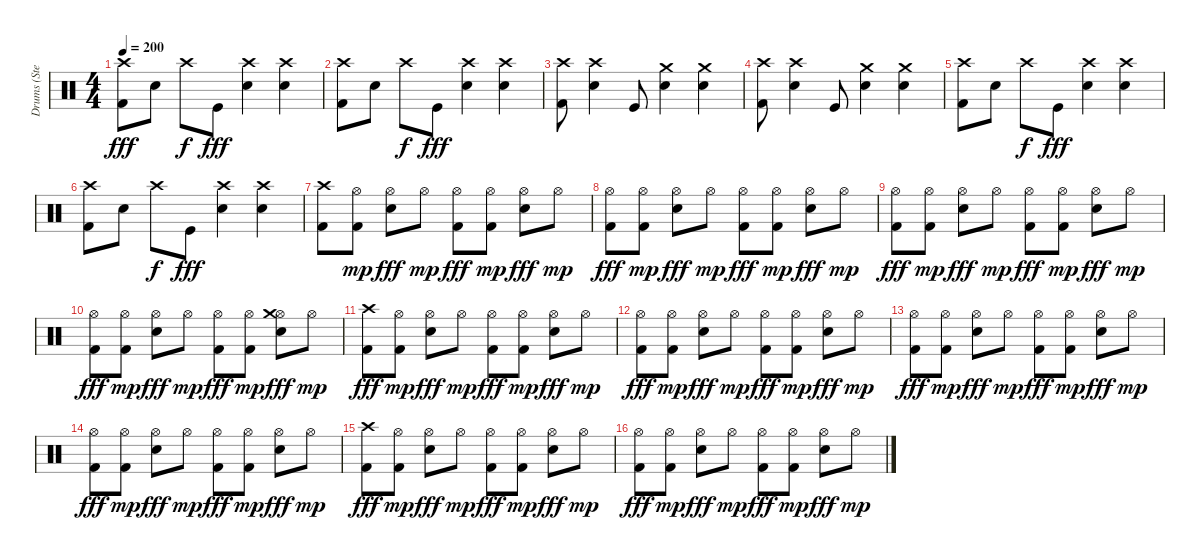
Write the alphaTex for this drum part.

\track ("Drums (Stevo32)" "Drums (Ste") {instrument percussion}
\staff {score}
\articulation defaults
\ts (4 4)
\tempo 200
\clef neutral
\ks c
("Kick (hit) 2" "Crash high (hit)").8{dy fff} "Electric Snare (hit)".8 "Crash high (hit)".8{dy f} "Kick (hit)".8{dy fff} ("Electric Snare (hit)" "Crash high (hit)").4 ("Electric Snare (hit)" "Crash high (hit)").4 |
("Kick (hit) 2" "Crash high (hit)").8 "Electric Snare (hit)".8 "Crash high (hit)".8{dy f} "Kick (hit)".8{dy fff} ("Electric Snare (hit)" "Crash high (hit)").4 ("Electric Snare (hit)" "Crash high (hit)").4 |
("Kick (hit) 2" "Crash high (hit)").8 ("Electric Snare (hit)" "Crash high (hit)").4 "Kick (hit)".8 ("Electric Snare (hit)" "Crash medium (hit)").4 ("Electric Snare (hit)" "Crash medium (hit)").4 |
("Kick (hit) 2" "Crash high (hit)").8 ("Electric Snare (hit)" "Crash high (hit)").4 "Kick (hit)".8 ("Electric Snare (hit)" "Crash medium (hit)").4 ("Electric Snare (hit)" "Crash medium (hit)").4 |
("Kick (hit) 2" "Crash high (hit)").8 "Electric Snare (hit)".8 "Crash high (hit)".8{dy f} "Kick (hit)".8{dy fff} ("Electric Snare (hit)" "Crash high (hit)").4 ("Electric Snare (hit)" "Crash high (hit)").4 |
("Kick (hit) 2" "Crash high (hit)").8 "Electric Snare (hit)".8 "Crash high (hit)".8{dy f} "Kick (hit)".8{dy fff} ("Electric Snare (hit)" "Crash high (hit)").4 ("Electric Snare (hit)" "Crash high (hit)").4 |
("Kick (hit) 2" "Crash high (hit)").8 ("Kick (hit) 2" "Hi-Hat (open)").8{dy mp} ("Electric Snare (hit)" "Hi-Hat (open)").8{dy fff} "Hi-Hat (open)".8{dy mp} ("Kick (hit) 2" "Hi-Hat (open)").8{dy fff} ("Kick (hit) 2" "Hi-Hat (open)").8{dy mp} ("Electric Snare (hit)" "Hi-Hat (open)").8{dy fff} "Hi-Hat (open)".8{dy mp} |
("Kick (hit) 2" "Hi-Hat (open)").8{dy fff} ("Kick (hit) 2" "Hi-Hat (open)").8{dy mp} ("Electric Snare (hit)" "Hi-Hat (open)").8{dy fff} "Hi-Hat (open)".8{dy mp} ("Kick (hit) 2" "Hi-Hat (open)").8{dy fff} ("Kick (hit) 2" "Hi-Hat (open)").8{dy mp} ("Electric Snare (hit)" "Hi-Hat (open)").8{dy fff} "Hi-Hat (open)".8{dy mp} |
("Kick (hit) 2" "Hi-Hat (open)").8{dy fff} ("Kick (hit) 2" "Hi-Hat (open)").8{dy mp} ("Electric Snare (hit)" "Hi-Hat (open)").8{dy fff} "Hi-Hat (open)".8{dy mp} ("Kick (hit) 2" "Hi-Hat (open)").8{dy fff} ("Kick (hit) 2" "Hi-Hat (open)").8{dy mp} ("Electric Snare (hit)" "Hi-Hat (open)").8{dy fff} "Hi-Hat (open)".8{dy mp} |
("Kick (hit) 2" "Hi-Hat (open)").8{dy fff} ("Kick (hit) 2" "Hi-Hat (open)").8{dy mp} ("Electric Snare (hit)" "Hi-Hat (open)").8{dy fff} "Hi-Hat (open)".8{dy mp} ("Kick (hit) 2" "Hi-Hat (open)").8{dy fff} ("Kick (hit) 2" "Hi-Hat (open)").8{dy mp} ("Electric Snare (hit)" "Hi-Hat (open)" "Crash medium (hit)").8{dy fff} "Hi-Hat (open)".8{dy mp} |
("Kick (hit) 2" "Crash high (hit)").8{dy fff} ("Kick (hit) 2" "Hi-Hat (open)").8{dy mp} ("Electric Snare (hit)" "Hi-Hat (open)").8{dy fff} "Hi-Hat (open)".8{dy mp} ("Kick (hit) 2" "Hi-Hat (open)").8{dy fff} ("Kick (hit) 2" "Hi-Hat (open)").8{dy mp} ("Electric Snare (hit)" "Hi-Hat (open)").8{dy fff} "Hi-Hat (open)".8{dy mp} |
("Kick (hit) 2" "Hi-Hat (open)").8{dy fff} ("Kick (hit) 2" "Hi-Hat (open)").8{dy mp} ("Electric Snare (hit)" "Hi-Hat (open)").8{dy fff} "Hi-Hat (open)".8{dy mp} ("Kick (hit) 2" "Hi-Hat (open)").8{dy fff} ("Kick (hit) 2" "Hi-Hat (open)").8{dy mp} ("Electric Snare (hit)" "Hi-Hat (open)").8{dy fff} "Hi-Hat (open)".8{dy mp} |
("Kick (hit) 2" "Hi-Hat (open)").8{dy fff} ("Kick (hit) 2" "Hi-Hat (open)").8{dy mp} ("Electric Snare (hit)" "Hi-Hat (open)").8{dy fff} "Hi-Hat (open)".8{dy mp} ("Kick (hit) 2" "Hi-Hat (open)").8{dy fff} ("Kick (hit) 2" "Hi-Hat (open)").8{dy mp} ("Electric Snare (hit)" "Hi-Hat (open)").8{dy fff} "Hi-Hat (open)".8{dy mp} |
("Kick (hit) 2" "Hi-Hat (open)").8{dy fff} ("Kick (hit) 2" "Hi-Hat (open)").8{dy mp} ("Electric Snare (hit)" "Hi-Hat (open)").8{dy fff} "Hi-Hat (open)".8{dy mp} ("Kick (hit) 2" "Hi-Hat (open)").8{dy fff} ("Kick (hit) 2" "Hi-Hat (open)").8{dy mp} ("Electric Snare (hit)" "Hi-Hat (open)").8{dy fff} "Hi-Hat (open)".8{dy mp} |
("Kick (hit) 2" "Crash high (hit)").8{dy fff} ("Kick (hit) 2" "Hi-Hat (open)").8{dy mp} ("Electric Snare (hit)" "Hi-Hat (open)").8{dy fff} "Hi-Hat (open)".8{dy mp} ("Kick (hit) 2" "Hi-Hat (open)").8{dy fff} ("Kick (hit) 2" "Hi-Hat (open)").8{dy mp} ("Electric Snare (hit)" "Hi-Hat (open)").8{dy fff} "Hi-Hat (open)".8{dy mp} |
("Kick (hit) 2" "Hi-Hat (open)").8{dy fff} ("Kick (hit) 2" "Hi-Hat (open)").8{dy mp} ("Electric Snare (hit)" "Hi-Hat (open)").8{dy fff} "Hi-Hat (open)".8{dy mp} ("Kick (hit) 2" "Hi-Hat (open)").8{dy fff} ("Kick (hit) 2" "Hi-Hat (open)").8{dy mp} ("Electric Snare (hit)" "Hi-Hat (open)").8{dy fff} "Hi-Hat (open)".8{dy mp}
